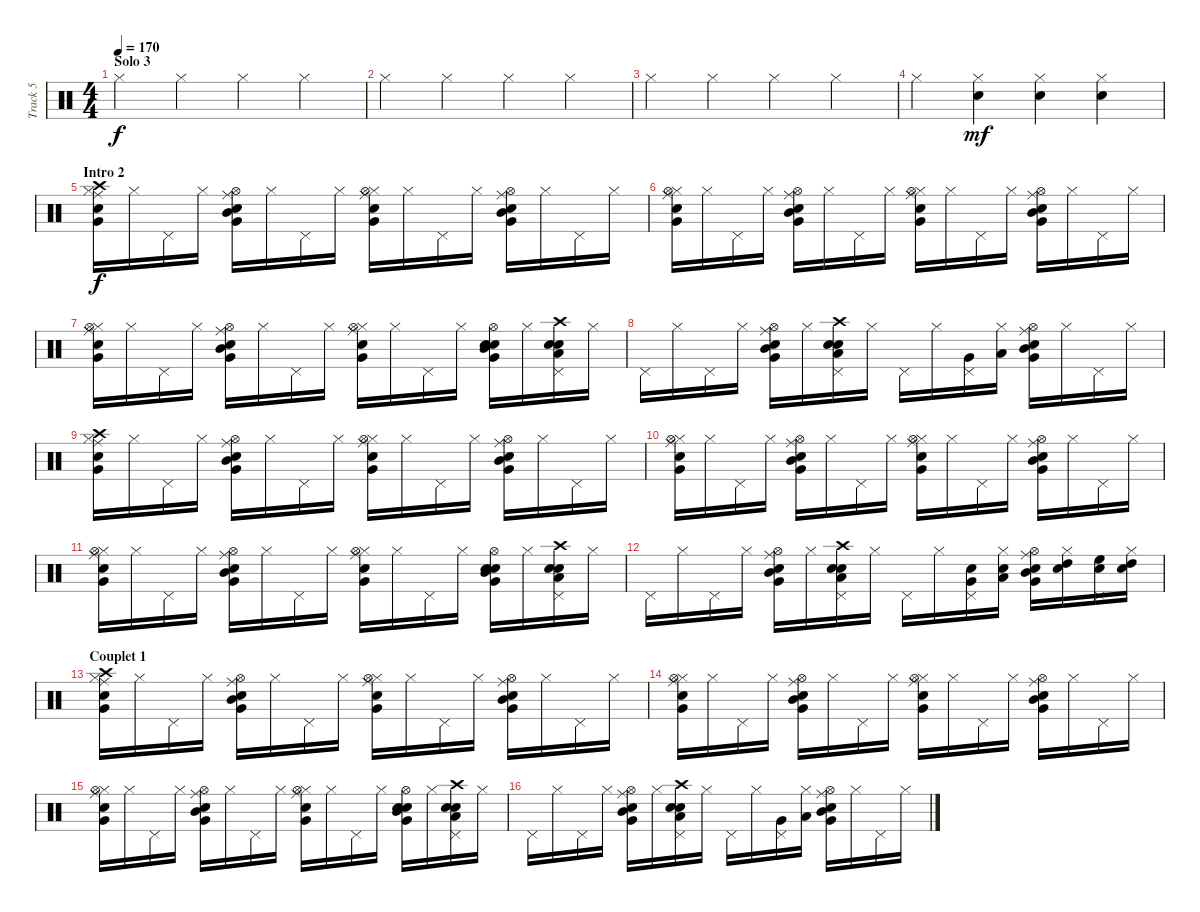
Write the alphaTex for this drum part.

\track ("Track 5" "Track 5") {instrument percussion}
\staff {score}
\articulation defaults
\ts (4 4)
\section ("" "Solo 3")
\tempo 170
\clef neutral
\ks c "Hi-Hat (closed)".4{dy f} "Hi-Hat (closed)".4 "Hi-Hat (closed)".4 "Hi-Hat (closed)".4
|
"Hi-Hat (closed)".4 "Hi-Hat (closed)".4 "Hi-Hat (closed)".4 "Hi-Hat (closed)".4 |
"Hi-Hat (closed)".4 "Hi-Hat (closed)".4 "Hi-Hat (closed)".4 "Hi-Hat (closed)".4 |
"Hi-Hat (closed)".4 ("Hi-Hat (closed)" "Electric Snare (hit)").4{dy mf} ("Hi-Hat (closed)" "Electric Snare (hit)").4 ("Hi-Hat (closed)" "Electric Snare (hit)").4 |
\section ("" "Intro 2")
("Very Low Tom (hit)" "Snare (hit) 2" "Hi-Hat (closed)" "Ride (middle)" "Crash high (hit)").16{dy f} "Hi-Hat (closed)".16 "Pedal Hi-Hat (hit)".16 "Hi-Hat (closed)".16 ("Ride (middle)" "Very Low Tom (hit)" "Mid Tom (hit)" "Electric Snare (hit)" "Hi-Hat (open)").16 "Hi-Hat (closed)".16 "Pedal Hi-Hat (hit)".16 "Hi-Hat (closed)".16 ("Very Low Tom (hit)" "Snare (hit) 2" "Hi-Hat (closed)" "Ride (middle)" "Hi-Hat (open)").16 "Hi-Hat (closed)".16 "Pedal Hi-Hat (hit)".16 "Hi-Hat (closed)".16 ("Ride (middle)" "Very Low Tom (hit)" "Mid Tom (hit)" "Electric Snare (hit)" "Hi-Hat (open)").16 "Hi-Hat (closed)".16 "Pedal Hi-Hat (hit)".16 "Hi-Hat (closed)".16 |
("Very Low Tom (hit)" "Snare (hit) 2" "Hi-Hat (closed)" "Ride (middle)" "Hi-Hat (open)").16 "Hi-Hat (closed)".16 "Pedal Hi-Hat (hit)".16 "Hi-Hat (closed)".16 ("Ride (middle)" "Very Low Tom (hit)" "Mid Tom (hit)" "Electric Snare (hit)" "Hi-Hat (open)").16 "Hi-Hat (closed)".16 "Pedal Hi-Hat (hit)".16 "Hi-Hat (closed)".16 ("Very Low Tom (hit)" "Snare (hit) 2" "Hi-Hat (closed)" "Ride (middle)" "Hi-Hat (open)").16 "Hi-Hat (closed)".16 "Pedal Hi-Hat (hit)".16 "Hi-Hat (closed)".16 ("Ride (middle)" "Very Low Tom (hit)" "Mid Tom (hit)" "Electric Snare (hit)" "Hi-Hat (open)").16 "Hi-Hat (closed)".16 "Pedal Hi-Hat (hit)".16 "Hi-Hat (closed)".16 |
("Very Low Tom (hit)" "Snare (hit) 2" "Hi-Hat (closed)" "Ride (middle)" "Hi-Hat (open)").16 "Hi-Hat (closed)".16 "Pedal Hi-Hat (hit)".16 "Hi-Hat (closed)".16 ("Ride (middle)" "Very Low Tom (hit)" "Mid Tom (hit)" "Electric Snare (hit)" "Hi-Hat (open)").16 "Hi-Hat (closed)".16 "Pedal Hi-Hat (hit)".16 "Hi-Hat (closed)".16 ("Very Low Tom (hit)" "Snare (hit) 2" "Hi-Hat (closed)" "Ride (middle)" "Hi-Hat (open)").16 "Hi-Hat (closed)".16 "Pedal Hi-Hat (hit)".16 "Hi-Hat (closed)".16 ("Hi-Hat (open)" "Very Low Tom (hit)" "Mid Tom (hit)" "Electric Snare (hit)" "Snare (hit) 2").16 "Hi-Hat (closed)".16 ("Pedal Hi-Hat (hit)" "Low Tom (hit)" "Electric Snare (hit)" "Snare (hit) 2" "Crash high (hit)").16 "Hi-Hat (closed)".16 |
"Pedal Hi-Hat (hit)".16 "Hi-Hat (closed)".16 "Pedal Hi-Hat (hit)".16 "Hi-Hat (closed)".16 ("Ride (middle)" "Very Low Tom (hit)" "Mid Tom (hit)" "Electric Snare (hit)" "Hi-Hat (open)").16 "Hi-Hat (closed)".16 ("Pedal Hi-Hat (hit)" "Low Tom (hit)" "Electric Snare (hit)" "Snare (hit) 2" "Crash high (hit)").16 "Hi-Hat (closed)".16 "Pedal Hi-Hat (hit)".16 "Hi-Hat (closed)".16 ("Pedal Hi-Hat (hit)" "Very Low Tom (hit)").16 ("Hi-Hat (closed)" "Low Tom (hit)").16 ("Ride (middle)" "Very Low Tom (hit)" "Mid Tom (hit)" "Electric Snare (hit)" "Hi-Hat (open)").16 "Hi-Hat (closed)".16 "Pedal Hi-Hat (hit)".16 "Hi-Hat (closed)".16 |
("Very Low Tom (hit)" "Snare (hit) 2" "Hi-Hat (closed)" "Ride (middle)" "Crash high (hit)").16 "Hi-Hat (closed)".16 "Pedal Hi-Hat (hit)".16 "Hi-Hat (closed)".16 ("Ride (middle)" "Very Low Tom (hit)" "Mid Tom (hit)" "Electric Snare (hit)" "Hi-Hat (open)").16 "Hi-Hat (closed)".16 "Pedal Hi-Hat (hit)".16 "Hi-Hat (closed)".16 ("Very Low Tom (hit)" "Snare (hit) 2" "Hi-Hat (closed)" "Ride (middle)" "Hi-Hat (open)").16 "Hi-Hat (closed)".16 "Pedal Hi-Hat (hit)".16 "Hi-Hat (closed)".16 ("Ride (middle)" "Very Low Tom (hit)" "Mid Tom (hit)" "Electric Snare (hit)" "Hi-Hat (open)").16 "Hi-Hat (closed)".16 "Pedal Hi-Hat (hit)".16 "Hi-Hat (closed)".16 |
("Very Low Tom (hit)" "Snare (hit) 2" "Hi-Hat (closed)" "Ride (middle)" "Hi-Hat (open)").16 "Hi-Hat (closed)".16 "Pedal Hi-Hat (hit)".16 "Hi-Hat (closed)".16 ("Ride (middle)" "Very Low Tom (hit)" "Mid Tom (hit)" "Electric Snare (hit)" "Hi-Hat (open)").16 "Hi-Hat (closed)".16 "Pedal Hi-Hat (hit)".16 "Hi-Hat (closed)".16 ("Very Low Tom (hit)" "Snare (hit) 2" "Hi-Hat (closed)" "Ride (middle)" "Hi-Hat (open)").16 "Hi-Hat (closed)".16 "Pedal Hi-Hat (hit)".16 "Hi-Hat (closed)".16 ("Ride (middle)" "Very Low Tom (hit)" "Mid Tom (hit)" "Electric Snare (hit)" "Hi-Hat (open)").16 "Hi-Hat (closed)".16 "Pedal Hi-Hat (hit)".16 "Hi-Hat (closed)".16 |
("Very Low Tom (hit)" "Snare (hit) 2" "Hi-Hat (closed)" "Ride (middle)" "Hi-Hat (open)").16 "Hi-Hat (closed)".16 "Pedal Hi-Hat (hit)".16 "Hi-Hat (closed)".16 ("Ride (middle)" "Very Low Tom (hit)" "Mid Tom (hit)" "Electric Snare (hit)" "Hi-Hat (open)").16 "Hi-Hat (closed)".16 "Pedal Hi-Hat (hit)".16 "Hi-Hat (closed)".16 ("Very Low Tom (hit)" "Snare (hit) 2" "Hi-Hat (closed)" "Ride (middle)" "Hi-Hat (open)").16 "Hi-Hat (closed)".16 "Pedal Hi-Hat (hit)".16 "Hi-Hat (closed)".16 ("Hi-Hat (open)" "Very Low Tom (hit)" "Mid Tom (hit)" "Electric Snare (hit)" "Snare (hit) 2").16 "Hi-Hat (closed)".16 ("Pedal Hi-Hat (hit)" "Low Tom (hit)" "Electric Snare (hit)" "Snare (hit) 2" "Crash high (hit)").16 "Hi-Hat (closed)".16 |
"Pedal Hi-Hat (hit)".16 "Hi-Hat (closed)".16 "Pedal Hi-Hat (hit)".16 "Hi-Hat (closed)".16 ("Ride (middle)" "Very Low Tom (hit)" "Mid Tom (hit)" "Electric Snare (hit)" "Hi-Hat (open)").16 "Hi-Hat (closed)".16 ("Pedal Hi-Hat (hit)" "Low Tom (hit)" "Electric Snare (hit)" "Snare (hit) 2" "Crash high (hit)").16 "Hi-Hat (closed)".16 "Pedal Hi-Hat (hit)".16 "Hi-Hat (closed)".16 ("Pedal Hi-Hat (hit)" "Very Low Tom (hit)" "Electric Snare (hit)").16 ("Hi-Hat (closed)" "Low Tom (hit)" "Snare (hit) 2").16 ("Ride (middle)" "Very Low Tom (hit)" "Mid Tom (hit)" "Electric Snare (hit)" "Hi-Hat (open)").16 ("Hi-Hat (closed)" "High Tom (hit)" "Snare (hit) 2").16 ("Pedal Hi-Hat (hit)" "High Floor Tom (hit)" "Electric Snare (hit)").16 ("Hi-Hat (closed)" "High Tom (hit)" "Snare (hit) 2").16 |
\section ("" "Couplet 1")
("Very Low Tom (hit)" "Snare (hit) 2" "Hi-Hat (closed)" "Ride (middle)" "Crash high (hit)").16 "Hi-Hat (closed)".16 "Pedal Hi-Hat (hit)".16 "Hi-Hat (closed)".16 ("Ride (middle)" "Very Low Tom (hit)" "Mid Tom (hit)" "Electric Snare (hit)" "Hi-Hat (open)").16 "Hi-Hat (closed)".16 "Pedal Hi-Hat (hit)".16 "Hi-Hat (closed)".16 ("Very Low Tom (hit)" "Snare (hit) 2" "Hi-Hat (closed)" "Ride (middle)" "Hi-Hat (open)").16 "Hi-Hat (closed)".16 "Pedal Hi-Hat (hit)".16 "Hi-Hat (closed)".16 ("Ride (middle)" "Very Low Tom (hit)" "Mid Tom (hit)" "Electric Snare (hit)" "Hi-Hat (open)").16 "Hi-Hat (closed)".16 "Pedal Hi-Hat (hit)".16 "Hi-Hat (closed)".16 |
("Very Low Tom (hit)" "Snare (hit) 2" "Hi-Hat (closed)" "Ride (middle)" "Hi-Hat (open)").16 "Hi-Hat (closed)".16 "Pedal Hi-Hat (hit)".16 "Hi-Hat (closed)".16 ("Ride (middle)" "Very Low Tom (hit)" "Mid Tom (hit)" "Electric Snare (hit)" "Hi-Hat (open)").16 "Hi-Hat (closed)".16 "Pedal Hi-Hat (hit)".16 "Hi-Hat (closed)".16 ("Very Low Tom (hit)" "Snare (hit) 2" "Hi-Hat (closed)" "Ride (middle)" "Hi-Hat (open)").16 "Hi-Hat (closed)".16 "Pedal Hi-Hat (hit)".16 "Hi-Hat (closed)".16 ("Ride (middle)" "Very Low Tom (hit)" "Mid Tom (hit)" "Electric Snare (hit)" "Hi-Hat (open)").16 "Hi-Hat (closed)".16 "Pedal Hi-Hat (hit)".16 "Hi-Hat (closed)".16 |
("Very Low Tom (hit)" "Snare (hit) 2" "Hi-Hat (closed)" "Ride (middle)" "Hi-Hat (open)").16 "Hi-Hat (closed)".16 "Pedal Hi-Hat (hit)".16 "Hi-Hat (closed)".16 ("Ride (middle)" "Very Low Tom (hit)" "Mid Tom (hit)" "Electric Snare (hit)" "Hi-Hat (open)").16 "Hi-Hat (closed)".16 "Pedal Hi-Hat (hit)".16 "Hi-Hat (closed)".16 ("Very Low Tom (hit)" "Snare (hit) 2" "Hi-Hat (closed)" "Ride (middle)" "Hi-Hat (open)").16 "Hi-Hat (closed)".16 "Pedal Hi-Hat (hit)".16 "Hi-Hat (closed)".16 ("Hi-Hat (open)" "Very Low Tom (hit)" "Mid Tom (hit)" "Electric Snare (hit)" "Snare (hit) 2").16 "Hi-Hat (closed)".16 ("Pedal Hi-Hat (hit)" "Low Tom (hit)" "Electric Snare (hit)" "Snare (hit) 2" "Crash high (hit)").16 "Hi-Hat (closed)".16 |
"Pedal Hi-Hat (hit)".16 "Hi-Hat (closed)".16 "Pedal Hi-Hat (hit)".16 "Hi-Hat (closed)".16 ("Ride (middle)" "Very Low Tom (hit)" "Mid Tom (hit)" "Electric Snare (hit)" "Hi-Hat (open)").16 "Hi-Hat (closed)".16 ("Pedal Hi-Hat (hit)" "Low Tom (hit)" "Electric Snare (hit)" "Snare (hit) 2" "Crash high (hit)").16 "Hi-Hat (closed)".16 "Pedal Hi-Hat (hit)".16 "Hi-Hat (closed)".16 ("Pedal Hi-Hat (hit)" "Very Low Tom (hit)").16 ("Hi-Hat (closed)" "Low Tom (hit)").16 ("Ride (middle)" "Very Low Tom (hit)" "Mid Tom (hit)" "Electric Snare (hit)" "Hi-Hat (open)").16 "Hi-Hat (closed)".16 "Pedal Hi-Hat (hit)".16 "Hi-Hat (closed)".16
